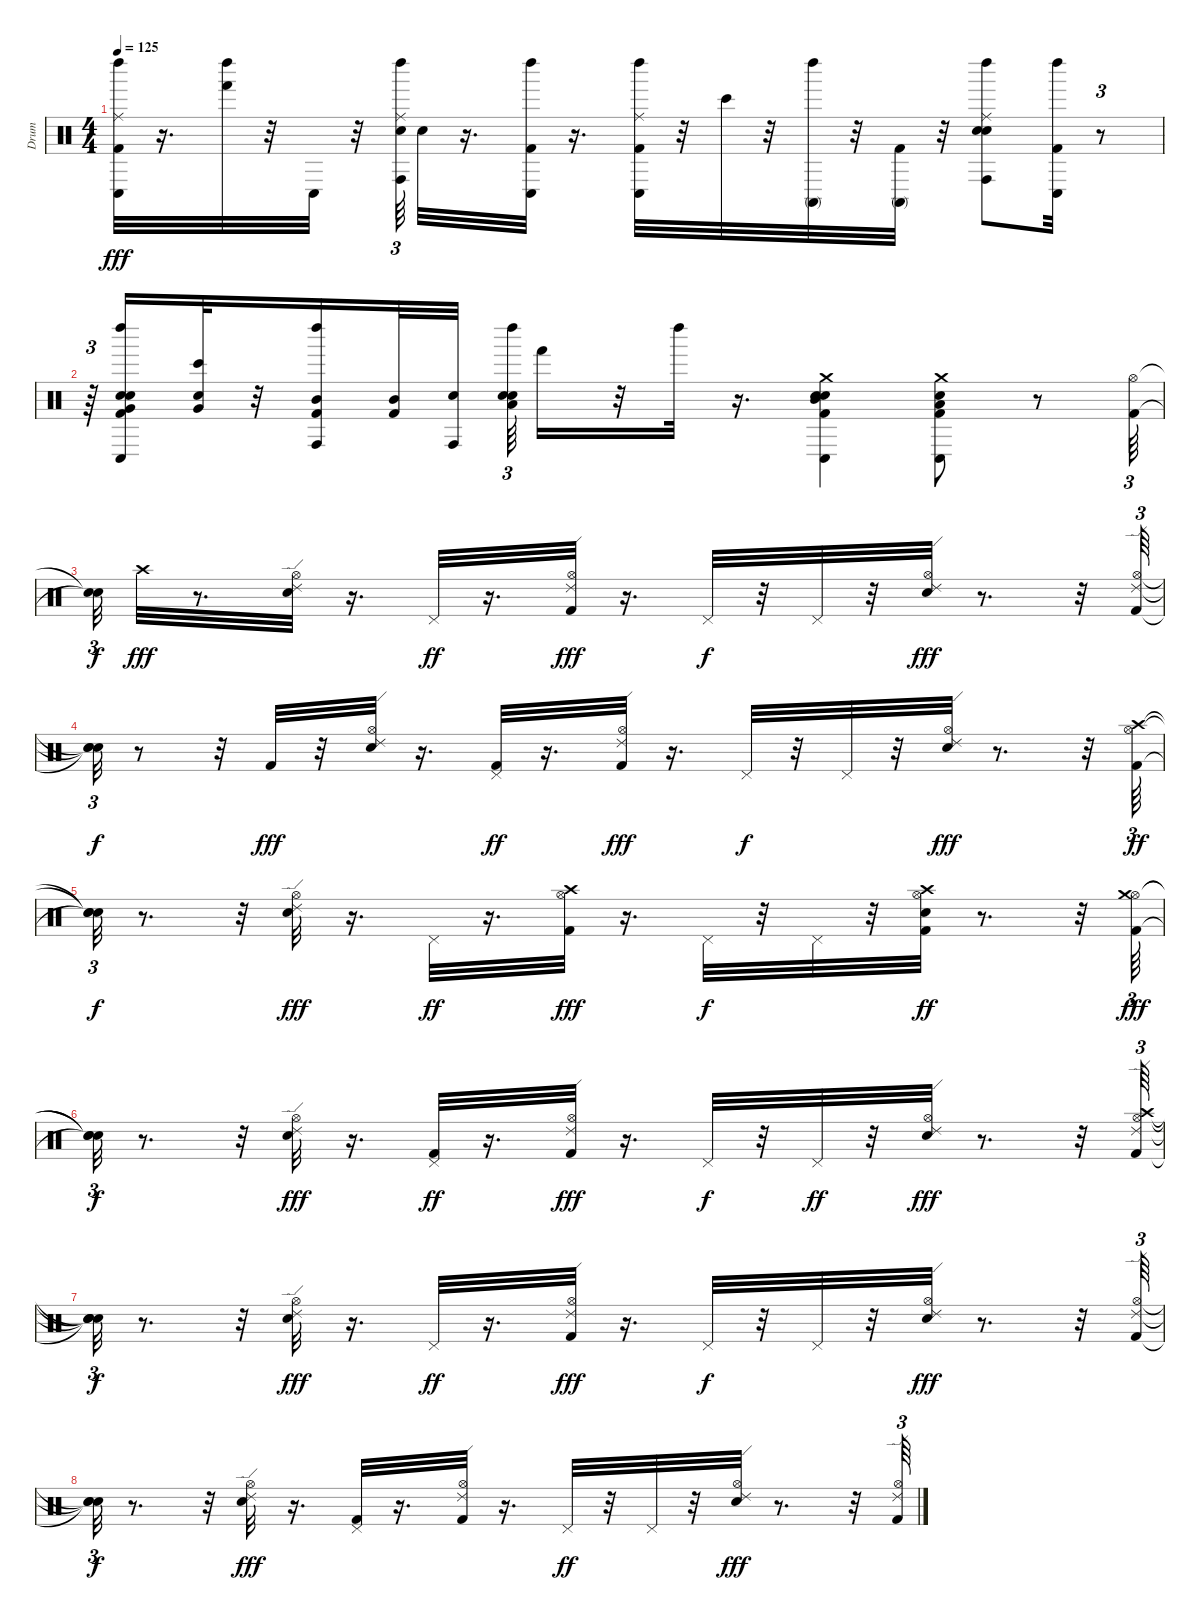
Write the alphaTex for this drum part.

\track ("Drum" "Drum") {instrument percussion}
\staff {score}
\articulation defaults
\ts (4 4)
\tempo 125
\clef neutral
\ks c
("Kick (hit) 2" "Conga low (hit)" "Left Maraca (hit)" "Ride (middle)").32{dy fff} r.16{d} ("Hand (hit)" "Left Maraca (hit)").32 r.32 "Conga low (hit)".32 r.32 ("Conga high (hit)" "Left Maraca (hit)" "Electric Snare (hit)" "Ride (middle)").64{tu (3 2)} "Electric Snare (hit)".32 r.16{d} ("Kick (hit) 2" "Conga low (hit)" "Left Maraca (hit)").32 r.16{d} ("Kick (hit) 2" "Conga low (hit)" "Left Maraca (hit)" "Ride (middle)").32 r.32 "Bongo High (hit)".32 r.32 ("Conga high (mute)" "Left Maraca (hit)").32 r.32 ("Kick (hit) 2" "Conga high (mute)").32 r.32 ("Conga high (hit)" "Left Maraca (hit)" "Electric Snare (hit)" "Ride (middle)" "Electric Snare (hit)").8 ("Kick (hit) 2" "Conga low (hit)" "Left Maraca (hit)").32 r.8{tu (3 2)} |
r.64{tu (3 2)} ("Kick (hit) 2" "Conga low (hit)" "Left Maraca (hit)" "Electric Snare (hit)" "Very Low Tom (hit)" "Electric Snare (hit)").16 ("Bongo High (hit)" "Very Low Tom (hit)" "Electric Snare (hit)").32 r.32 ("Kick (hit) 2" "Left Maraca (hit)" "Mid Tom (hit)" "Conga high (hit)").16 ("Kick (hit) 2" "Mid Tom (hit)").32 ("Conga high (hit)" "Electric Snare (hit)").32 ("Left Maraca (hit)" "Low Tom (hit)" "Electric Snare (hit)" "Electric Snare (hit)").64{tu (3 2)} "Hand (hit)".16 r.32 "Left Maraca (hit)".32 r.16{d} ("Crash medium (hit)" "Electric Snare (hit)" "Mid Tom (hit)" "Kick (hit) 2" "Conga low (hit)" "Electric Snare (hit)").4 ("Kick (hit) 2" "Conga low (hit)" "Electric Snare (hit)" "Crash medium (hit)" "Low Tom (hit)").8 r.8 ("Kick (hit) 2" "Hi-Hat (open)").64{tu (3 2)} |
("Snare (hit)"{t} "Snare (hit)"{t}).32{tu (3 2) dy f} "Crash high (hit)".32{dy fff} r.8{d} ("Hi-Hat (open)" "Electric Snare (hit)" "Ride (edge) 2").32 r.16{d} "Pedal Hi-Hat (hit)".32{dy ff} r.16{d} ("Kick (hit) 2" "Hi-Hat (open)" "Ride (edge) 2").32{dy fff} r.16{d} "Pedal Hi-Hat (hit)".32{dy f} r.32 "Pedal Hi-Hat (hit)".32 r.32 ("Hi-Hat (open)" "Electric Snare (hit)" "Ride (edge) 2").32{dy fff} r.8{d} r.32 ("Kick (hit) 2" "Hi-Hat (open)" "Ride (edge) 2").64{tu (3 2)} |
("Snare (hit)"{t} "Snare (hit)"{t} "Snare (hit)"{t}).32{tu (3 2) dy f} r.8 r.32 "Kick (hit) 2".32{dy fff} r.32 ("Hi-Hat (open)" "Electric Snare (hit)" "Ride (edge) 2").32 r.16{d} ("Kick (hit) 2" "Pedal Hi-Hat (hit)").32{dy ff} r.16{d} ("Kick (hit) 2" "Hi-Hat (open)" "Ride (edge) 2").32{dy fff} r.16{d} "Pedal Hi-Hat (hit)".32{dy f} r.32 "Pedal Hi-Hat (hit)".32 r.32 ("Hi-Hat (open)" "Electric Snare (hit)" "Ride (edge) 2").32{dy fff} r.8{d} r.32 ("Kick (hit) 2" "Hi-Hat (open)" "Crash high (hit)").64{tu (3 2) dy ff} |
("Snare (hit)"{t} "Snare (hit)"{t} "Snare (hit)"{t}).32{tu (3 2) dy f} r.8{d} r.32 ("Hi-Hat (open)" "Electric Snare (hit)" "Ride (edge) 2").32{dy fff} r.16{d} "Pedal Hi-Hat (hit)".32{dy ff} r.16{d} ("Kick (hit) 2" "Hi-Hat (open)" "Crash high (hit)").32{dy fff} r.16{d} "Pedal Hi-Hat (hit)".32{dy f} r.32 "Pedal Hi-Hat (hit)".32 r.32 ("Kick (hit) 2" "Hi-Hat (open)" "Electric Snare (hit)" "Crash high (hit)").32{dy ff} r.8{d} r.32 ("Kick (hit) 2" "Hi-Hat (open)" "Crash medium (hit)").64{tu (3 2) dy fff} |
("Snare (hit)"{t} "Snare (hit)"{t} "Snare (hit)"{t}).32{tu (3 2) dy f} r.8{d} r.32 ("Hi-Hat (open)" "Electric Snare (hit)" "Ride (edge) 2").32{dy fff} r.16{d} ("Kick (hit) 2" "Pedal Hi-Hat (hit)").32{dy ff} r.16{d} ("Kick (hit) 2" "Hi-Hat (open)" "Ride (edge) 2").32{dy fff} r.16{d} "Pedal Hi-Hat (hit)".32{dy f} r.32 "Pedal Hi-Hat (hit)".32{dy ff} r.32 ("Hi-Hat (open)" "Electric Snare (hit)" "Ride (edge) 2").32{dy fff} r.8{d} r.32 ("Kick (hit) 2" "Hi-Hat (open)" "Crash high (hit)" "Ride (edge) 2").64{tu (3 2)} |
("Snare (hit)"{t} "Snare (hit)"{t} "Snare (hit)"{t} "Snare (hit)"{t}).32{tu (3 2) dy f} r.8{d} r.32 ("Hi-Hat (open)" "Electric Snare (hit)" "Ride (edge) 2").32{dy fff} r.16{d} "Pedal Hi-Hat (hit)".32{dy ff} r.16{d} ("Kick (hit) 2" "Hi-Hat (open)" "Ride (edge) 2").32{dy fff} r.16{d} "Pedal Hi-Hat (hit)".32{dy f} r.32 "Pedal Hi-Hat (hit)".32 r.32 ("Hi-Hat (open)" "Electric Snare (hit)" "Ride (edge) 2").32{dy fff} r.8{d} r.32 ("Kick (hit) 2" "Hi-Hat (open)" "Ride (edge) 2").64{tu (3 2)} |
("Snare (hit)"{t} "Snare (hit)"{t} "Snare (hit)"{t}).32{tu (3 2) dy f} r.8{d} r.32 ("Hi-Hat (open)" "Electric Snare (hit)" "Ride (edge) 2").32{dy fff} r.16{d} ("Kick (hit) 2" "Pedal Hi-Hat (hit)").32 r.16{d} ("Kick (hit) 2" "Hi-Hat (open)" "Ride (edge) 2").32 r.16{d} "Pedal Hi-Hat (hit)".32{dy ff} r.32 "Pedal Hi-Hat (hit)".32 r.32 ("Hi-Hat (open)" "Electric Snare (hit)" "Ride (edge) 2").32{dy fff} r.8{d} r.32 ("Kick (hit) 2" "Hi-Hat (open)" "Ride (edge) 2").64{tu (3 2)}
